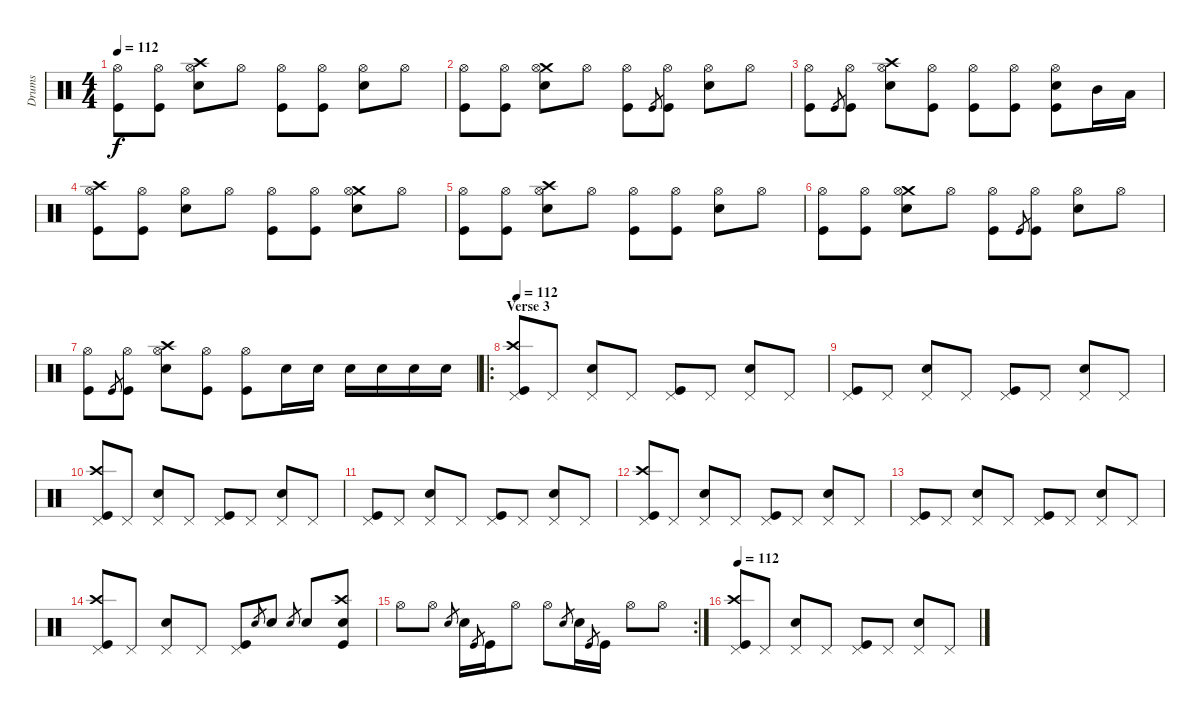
\track ("Drums" "Drums") {instrument percussion}
\staff {score}
\articulation defaults
\ts (4 4)
\tempo 112
\clef neutral
\ks c
("Hi-Hat (open)" "Kick (hit)").8{dy f} ("Hi-Hat (open)" "Kick (hit)").8 ("Crash high (hit)" "Hi-Hat (open)" "Snare (hit) 2").8 "Hi-Hat (open)".8 ("Hi-Hat (open)" "Kick (hit)").8 ("Hi-Hat (open)" "Kick (hit)").8 ("Hi-Hat (open)" "Snare (hit) 2").8 "Hi-Hat (open)".8 |
("Hi-Hat (open)" "Kick (hit)").8 ("Hi-Hat (open)" "Kick (hit)").8 ("Crash medium (hit)" "Hi-Hat (open)" "Snare (hit) 2").8 "Hi-Hat (open)".8 ("Hi-Hat (open)" "Kick (hit)").8 "Kick (hit)".8{gr} ("Hi-Hat (open)" "Kick (hit)").8 ("Hi-Hat (open)" "Snare (hit) 2").8 "Hi-Hat (open)".8 |
("Hi-Hat (open)" "Kick (hit)").8 "Kick (hit)".8{gr} ("Hi-Hat (open)" "Kick (hit)").8 ("Crash high (hit)" "Hi-Hat (open)" "Snare (hit) 2").8 ("Hi-Hat (open)" "Kick (hit)").8 ("Hi-Hat (open)" "Kick (hit)").8 ("Hi-Hat (open)" "Kick (hit)").8 ("Hi-Hat (open)" "Snare (hit) 2" "Kick (hit)").8 "Mid Tom (hit)".16 "Low Tom (hit)".16 |
("Crash high (hit)" "Hi-Hat (open)" "Kick (hit)").8 ("Hi-Hat (open)" "Kick (hit)").8 ("Hi-Hat (open)" "Snare (hit) 2").8 "Hi-Hat (open)".8 ("Hi-Hat (open)" "Kick (hit)").8 ("Hi-Hat (open)" "Kick (hit)").8 ("Crash medium (hit)" "Hi-Hat (open)" "Snare (hit) 2").8 "Hi-Hat (open)".8 |
("Hi-Hat (open)" "Kick (hit)").8 ("Hi-Hat (open)" "Kick (hit)").8 ("Crash high (hit)" "Hi-Hat (open)" "Snare (hit) 2").8 "Hi-Hat (open)".8 ("Hi-Hat (open)" "Kick (hit)").8 ("Hi-Hat (open)" "Kick (hit)").8 ("Hi-Hat (open)" "Snare (hit) 2").8 "Hi-Hat (open)".8 |
("Hi-Hat (open)" "Kick (hit)").8 ("Hi-Hat (open)" "Kick (hit)").8 ("Crash medium (hit)" "Hi-Hat (open)" "Snare (hit) 2").8 "Hi-Hat (open)".8 ("Hi-Hat (open)" "Kick (hit)").8 "Kick (hit)".8{gr} ("Hi-Hat (open)" "Kick (hit)").8 ("Hi-Hat (open)" "Snare (hit) 2").8 "Hi-Hat (open)".8 |
("Hi-Hat (open)" "Kick (hit)").8 "Kick (hit)".8{gr} ("Hi-Hat (open)" "Kick (hit)").8 ("Crash high (hit)" "Hi-Hat (open)" "Snare (hit) 2").8 ("Hi-Hat (open)" "Kick (hit)").8 ("Hi-Hat (open)" "Kick (hit)").8 "Snare (hit) 2".16 "Snare (hit) 2".16 "Snare (hit) 2".16 "Snare (hit) 2".16 "Snare (hit) 2".16 "Snare (hit) 2".16 |
\ro
\section ("" "Verse 3")
\tempo 112
("Crash high (hit)" "Pedal Hi-Hat (hit)" "Kick (hit)").8 "Pedal Hi-Hat (hit)".8 ("Pedal Hi-Hat (hit)" "Snare (hit) 2").8 "Pedal Hi-Hat (hit)".8 ("Pedal Hi-Hat (hit)" "Kick (hit)").8 "Pedal Hi-Hat (hit)".8 ("Pedal Hi-Hat (hit)" "Snare (hit) 2").8 "Pedal Hi-Hat (hit)".8 |
("Pedal Hi-Hat (hit)" "Kick (hit)").8 "Pedal Hi-Hat (hit)".8 ("Pedal Hi-Hat (hit)" "Snare (hit) 2").8 "Pedal Hi-Hat (hit)".8 ("Pedal Hi-Hat (hit)" "Kick (hit)").8 "Pedal Hi-Hat (hit)".8 ("Pedal Hi-Hat (hit)" "Snare (hit) 2").8 "Pedal Hi-Hat (hit)".8 |
("Crash high (hit)" "Pedal Hi-Hat (hit)" "Kick (hit)").8 "Pedal Hi-Hat (hit)".8 ("Pedal Hi-Hat (hit)" "Snare (hit) 2").8 "Pedal Hi-Hat (hit)".8 ("Pedal Hi-Hat (hit)" "Kick (hit)").8 "Pedal Hi-Hat (hit)".8 ("Pedal Hi-Hat (hit)" "Snare (hit) 2").8 "Pedal Hi-Hat (hit)".8 |
("Pedal Hi-Hat (hit)" "Kick (hit)").8 "Pedal Hi-Hat (hit)".8 ("Pedal Hi-Hat (hit)" "Snare (hit) 2").8 "Pedal Hi-Hat (hit)".8 ("Pedal Hi-Hat (hit)" "Kick (hit)").8 "Pedal Hi-Hat (hit)".8 ("Pedal Hi-Hat (hit)" "Snare (hit) 2").8 "Pedal Hi-Hat (hit)".8 |
("Crash high (hit)" "Pedal Hi-Hat (hit)" "Kick (hit)").8 "Pedal Hi-Hat (hit)".8 ("Pedal Hi-Hat (hit)" "Snare (hit) 2").8 "Pedal Hi-Hat (hit)".8 ("Pedal Hi-Hat (hit)" "Kick (hit)").8 "Pedal Hi-Hat (hit)".8 ("Pedal Hi-Hat (hit)" "Snare (hit) 2").8 "Pedal Hi-Hat (hit)".8 |
("Pedal Hi-Hat (hit)" "Kick (hit)").8 "Pedal Hi-Hat (hit)".8 ("Pedal Hi-Hat (hit)" "Snare (hit) 2").8 "Pedal Hi-Hat (hit)".8 ("Pedal Hi-Hat (hit)" "Kick (hit)").8 "Pedal Hi-Hat (hit)".8 ("Pedal Hi-Hat (hit)" "Snare (hit) 2").8 "Pedal Hi-Hat (hit)".8 |
("Crash high (hit)" "Pedal Hi-Hat (hit)" "Kick (hit)").8 "Pedal Hi-Hat (hit)".8 ("Pedal Hi-Hat (hit)" "Snare (hit) 2").8 "Pedal Hi-Hat (hit)".8 ("Pedal Hi-Hat (hit)" "Kick (hit)").8 "Snare (hit) 2".8{gr} "Snare (hit) 2".8 "Snare (hit) 2".8{gr} "Snare (hit) 2".8 ("Crash high (hit)" "Snare (hit) 2" "Kick (hit)").8 |
\rc 2 "Hi-Hat (open)".8 "Hi-Hat (open)".8 "Snare (hit) 2".8{gr} "Snare (hit) 2".16 "Kick (hit)".8{gr} "Kick (hit)".16 "Hi-Hat (open)".8 "Hi-Hat (open)".8 "Snare (hit) 2".8{gr} "Snare (hit) 2".16 "Kick (hit)".8{gr} "Kick (hit)".16 "Hi-Hat (open)".8 "Hi-Hat (open)".8
|
\tempo 112
("Crash high (hit)" "Pedal Hi-Hat (hit)" "Kick (hit)").8{volume 16} "Pedal Hi-Hat (hit)".8 ("Pedal Hi-Hat (hit)" "Snare (hit) 2").8 "Pedal Hi-Hat (hit)".8 ("Pedal Hi-Hat (hit)" "Kick (hit)").8 "Pedal Hi-Hat (hit)".8 ("Pedal Hi-Hat (hit)" "Snare (hit) 2").8 "Pedal Hi-Hat (hit)".8
